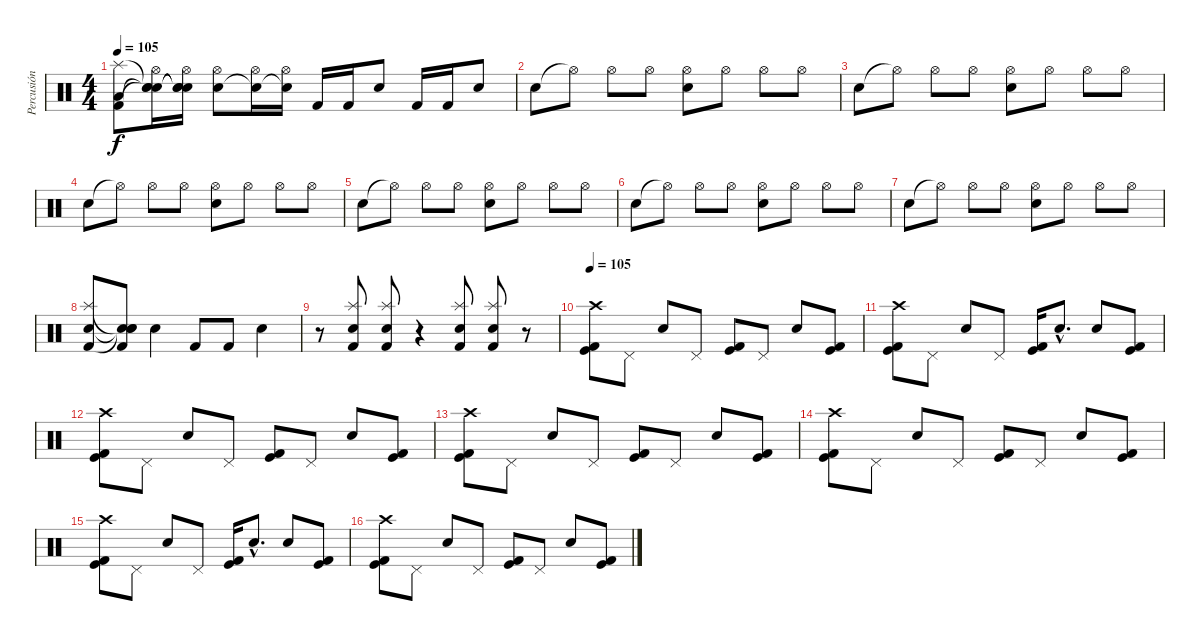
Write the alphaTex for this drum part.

\track ("Percusión" "Percusión") {instrument percussion}
\staff {score}
\articulation defaults
\ts (4 4)
\tempo 105
\clef neutral
\ks c
("Kick (hit) 2" "Low Tom (hit)" "Splash (hit)").8{dy f} ("Snare (hit)"{t} "Snare (hit)"{t} "Snare (hit)"{t} "Hi-Hat (open)").16 ("Snare (hit)"{t} "Snare (hit)"{t} "Snare (hit)"{t} "Hi-Hat (open)").16 ("Electric Snare (hit)" "Hi-Hat (open)").8 ("Snare (hit)"{t} "Hi-Hat (open)").16 ("Snare (hit)"{t} "Hi-Hat (open)").16 "Kick (hit) 2".16 "Kick (hit) 2".16 "Electric Snare (hit)".8 "Kick (hit) 2".16 "Kick (hit) 2".16 "Electric Snare (hit)".8 |
"Electric Snare (hit)".8 "Hi-Hat (open)"{t}.8 "Hi-Hat (open)".8 "Hi-Hat (open)".8 ("Electric Snare (hit)" "Hi-Hat (open)").8 "Hi-Hat (open)".8 "Hi-Hat (open)".8 "Hi-Hat (open)".8 |
"Electric Snare (hit)".8 "Hi-Hat (open)"{t}.8 "Hi-Hat (open)".8 "Hi-Hat (open)".8 ("Electric Snare (hit)" "Hi-Hat (open)").8 "Hi-Hat (open)".8 "Hi-Hat (open)".8 "Hi-Hat (open)".8 |
"Electric Snare (hit)".8 "Hi-Hat (open)"{t}.8 "Hi-Hat (open)".8 "Hi-Hat (open)".8 ("Electric Snare (hit)" "Hi-Hat (open)").8 "Hi-Hat (open)".8 "Hi-Hat (open)".8 "Hi-Hat (open)".8 |
"Electric Snare (hit)".8 "Hi-Hat (open)"{t}.8 "Hi-Hat (open)".8 "Hi-Hat (open)".8 ("Electric Snare (hit)" "Hi-Hat (open)").8 "Hi-Hat (open)".8 "Hi-Hat (open)".8 "Hi-Hat (open)".8 |
"Electric Snare (hit)".8 "Hi-Hat (open)"{t}.8 "Hi-Hat (open)".8 "Hi-Hat (open)".8 ("Electric Snare (hit)" "Hi-Hat (open)").8 "Hi-Hat (open)".8 "Hi-Hat (open)".8 "Hi-Hat (open)".8 |
"Electric Snare (hit)".8 "Hi-Hat (open)"{t}.8 "Hi-Hat (open)".8 "Hi-Hat (open)".8 ("Electric Snare (hit)" "Hi-Hat (open)").8 "Hi-Hat (open)".8 "Hi-Hat (open)".8 "Hi-Hat (open)".8 |
("Kick (hit) 2" "Electric Snare (hit)" "Splash (hit)").8 ("Snare (hit)"{t} "Snare (hit)"{t} "Snare (hit)"{t} "Kick (hit) 2").8 "Electric Snare (hit)".4 "Kick (hit) 2".8 "Kick (hit) 2".8 "Electric Snare (hit)".4 |
r.8 ("Electric Snare (hit)" "Kick (hit) 2" "Splash (hit)").8 ("Electric Snare (hit)" "Kick (hit) 2" "Splash (hit)").8 r.4 ("Electric Snare (hit)" "Kick (hit) 2" "Splash (hit)").8 ("Electric Snare (hit)" "Kick (hit) 2" "Splash (hit)").8 r.8 |
\tempo 105
("Kick (hit) 2" "Kick (hit)" "Crash high (hit)").8 "Pedal Hi-Hat (hit)".8 "Electric Snare (hit)".8 "Pedal Hi-Hat (hit)".8 ("Kick (hit) 2" "Kick (hit)").8 "Pedal Hi-Hat (hit)".8 "Electric Snare (hit)".8 ("Kick (hit) 2" "Kick (hit)").8 |
("Kick (hit) 2" "Kick (hit)" "Crash high (hit)").8 "Pedal Hi-Hat (hit)".8 "Electric Snare (hit)".8 "Pedal Hi-Hat (hit)".8 ("Kick (hit) 2" "Kick (hit)").16 "Electric Snare (hit)"{hac}.8{d} "Electric Snare (hit)".8 ("Kick (hit) 2" "Kick (hit)").8 |
("Kick (hit) 2" "Kick (hit)" "Crash high (hit)").8 "Pedal Hi-Hat (hit)".8 "Electric Snare (hit)".8 "Pedal Hi-Hat (hit)".8 ("Kick (hit) 2" "Kick (hit)").8 "Pedal Hi-Hat (hit)".8 "Electric Snare (hit)".8 ("Kick (hit) 2" "Kick (hit)").8 |
("Kick (hit) 2" "Kick (hit)" "Crash high (hit)").8 "Pedal Hi-Hat (hit)".8 "Electric Snare (hit)".8 "Pedal Hi-Hat (hit)".8 ("Kick (hit) 2" "Kick (hit)").8 "Pedal Hi-Hat (hit)".8 "Electric Snare (hit)".8 ("Kick (hit) 2" "Kick (hit)").8 |
("Kick (hit) 2" "Kick (hit)" "Crash high (hit)").8 "Pedal Hi-Hat (hit)".8 "Electric Snare (hit)".8 "Pedal Hi-Hat (hit)".8 ("Kick (hit) 2" "Kick (hit)").8 "Pedal Hi-Hat (hit)".8 "Electric Snare (hit)".8 ("Kick (hit) 2" "Kick (hit)").8 |
("Kick (hit) 2" "Kick (hit)" "Crash high (hit)").8 "Pedal Hi-Hat (hit)".8 "Electric Snare (hit)".8 "Pedal Hi-Hat (hit)".8 ("Kick (hit) 2" "Kick (hit)").16 "Electric Snare (hit)"{hac}.8{d} "Electric Snare (hit)".8 ("Kick (hit) 2" "Kick (hit)").8 |
("Kick (hit) 2" "Kick (hit)" "Crash high (hit)").8 "Pedal Hi-Hat (hit)".8 "Electric Snare (hit)".8 "Pedal Hi-Hat (hit)".8 ("Kick (hit) 2" "Kick (hit)").8 "Pedal Hi-Hat (hit)".8 "Electric Snare (hit)".8 ("Kick (hit) 2" "Kick (hit)").8
